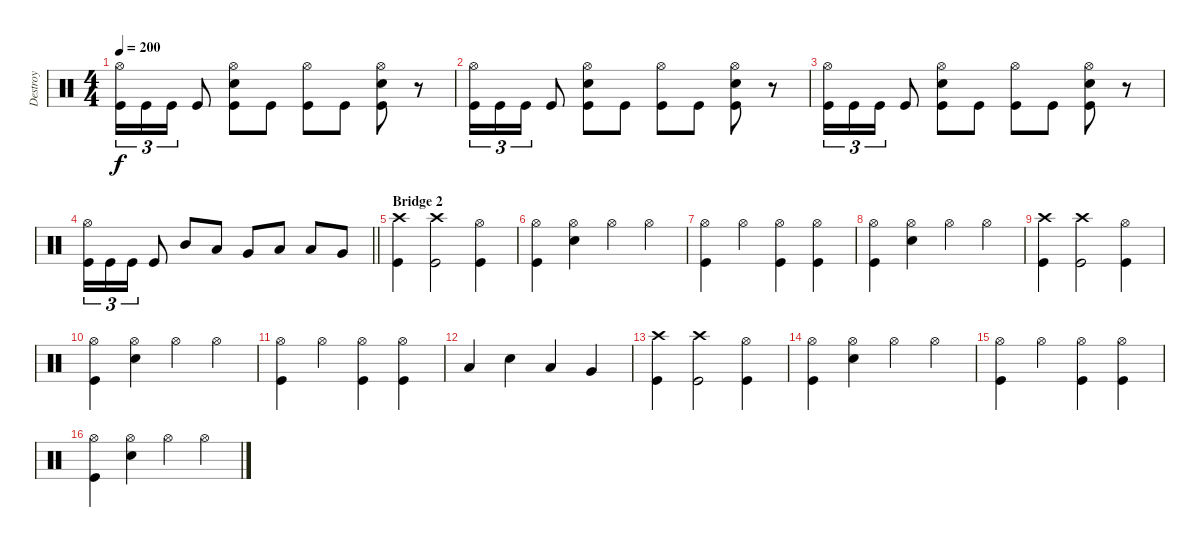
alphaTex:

\track ("Destroy" "Destroy") {instrument percussion}
\staff {score}
\articulation defaults
\ts (4 4)
\tempo 200
\clef neutral
\ks c
("Hi-Hat (open)" "Kick (hit)").16{tu (3 2) dy f} "Kick (hit)".16{tu (3 2)} "Kick (hit)".16{tu (3 2)} "Kick (hit)".8 ("Hi-Hat (open)" "Snare (hit) 2" "Kick (hit)").8 "Kick (hit)".8 ("Hi-Hat (open)" "Kick (hit)").8 "Kick (hit)".8 ("Hi-Hat (open)" "Snare (hit) 2" "Kick (hit)").8 r.8 |
("Hi-Hat (open)" "Kick (hit)").16{tu (3 2)} "Kick (hit)".16{tu (3 2)} "Kick (hit)".16{tu (3 2)} "Kick (hit)".8 ("Hi-Hat (open)" "Snare (hit) 2" "Kick (hit)").8 "Kick (hit)".8 ("Hi-Hat (open)" "Kick (hit)").8 "Kick (hit)".8 ("Hi-Hat (open)" "Snare (hit) 2" "Kick (hit)").8 r.8 |
("Hi-Hat (open)" "Kick (hit)").16{tu (3 2)} "Kick (hit)".16{tu (3 2)} "Kick (hit)".16{tu (3 2)} "Kick (hit)".8 ("Hi-Hat (open)" "Snare (hit) 2" "Kick (hit)").8 "Kick (hit)".8 ("Hi-Hat (open)" "Kick (hit)").8 "Kick (hit)".8 ("Hi-Hat (open)" "Snare (hit) 2" "Kick (hit)").8 r.8 |
\barLineRight lightlight
("Hi-Hat (open)" "Kick (hit)").16{tu (3 2)} "Kick (hit)".16{tu (3 2)} "Kick (hit)".16{tu (3 2)} "Kick (hit)".8 "Mid Tom (hit)".8 "Low Tom (hit)".8 "Very Low Tom (hit)".8 "Low Floor Tom (hit)".8 "Low Tom (hit)".8 "Very Low Tom (hit)".8 |
\section ("" "Bridge 2")
("Crash high (hit)" "Kick (hit)").4 ("Crash high (hit)" "Kick (hit)").2 ("Hi-Hat (open)" "Kick (hit)").4 |
("Hi-Hat (open)" "Kick (hit)").4 ("Hi-Hat (open)" "Snare (hit) 2").4 "Hi-Hat (open)".4 "Hi-Hat (open)".4 |
("Hi-Hat (open)" "Kick (hit)").4 "Hi-Hat (open)".4 ("Hi-Hat (open)" "Kick (hit)").4 ("Hi-Hat (open)" "Kick (hit)").4 |
("Hi-Hat (open)" "Kick (hit)").4 ("Hi-Hat (open)" "Snare (hit) 2").4 "Hi-Hat (open)".4 "Hi-Hat (open)".4 |
("Crash high (hit)" "Kick (hit)").4 ("Crash high (hit)" "Kick (hit)").2 ("Hi-Hat (open)" "Kick (hit)").4 |
("Hi-Hat (open)" "Kick (hit)").4 ("Hi-Hat (open)" "Snare (hit) 2").4 "Hi-Hat (open)".4 "Hi-Hat (open)".4 |
("Hi-Hat (open)" "Kick (hit)").4 "Hi-Hat (open)".4 ("Hi-Hat (open)" "Kick (hit)").4 ("Hi-Hat (open)" "Kick (hit)").4 |
"Low Tom (hit)".4 "Snare (hit) 2".4 "Low Tom (hit)".4 "Very Low Tom (hit)".4 |
("Crash high (hit)" "Kick (hit)").4 ("Crash high (hit)" "Kick (hit)").2 ("Hi-Hat (open)" "Kick (hit)").4 |
("Hi-Hat (open)" "Kick (hit)").4 ("Hi-Hat (open)" "Snare (hit) 2").4 "Hi-Hat (open)".4 "Hi-Hat (open)".4 |
("Hi-Hat (open)" "Kick (hit)").4 "Hi-Hat (open)".4 ("Hi-Hat (open)" "Kick (hit)").4 ("Hi-Hat (open)" "Kick (hit)").4 |
("Hi-Hat (open)" "Kick (hit)").4 ("Hi-Hat (open)" "Snare (hit) 2").4 "Hi-Hat (open)".4 "Hi-Hat (open)".4
